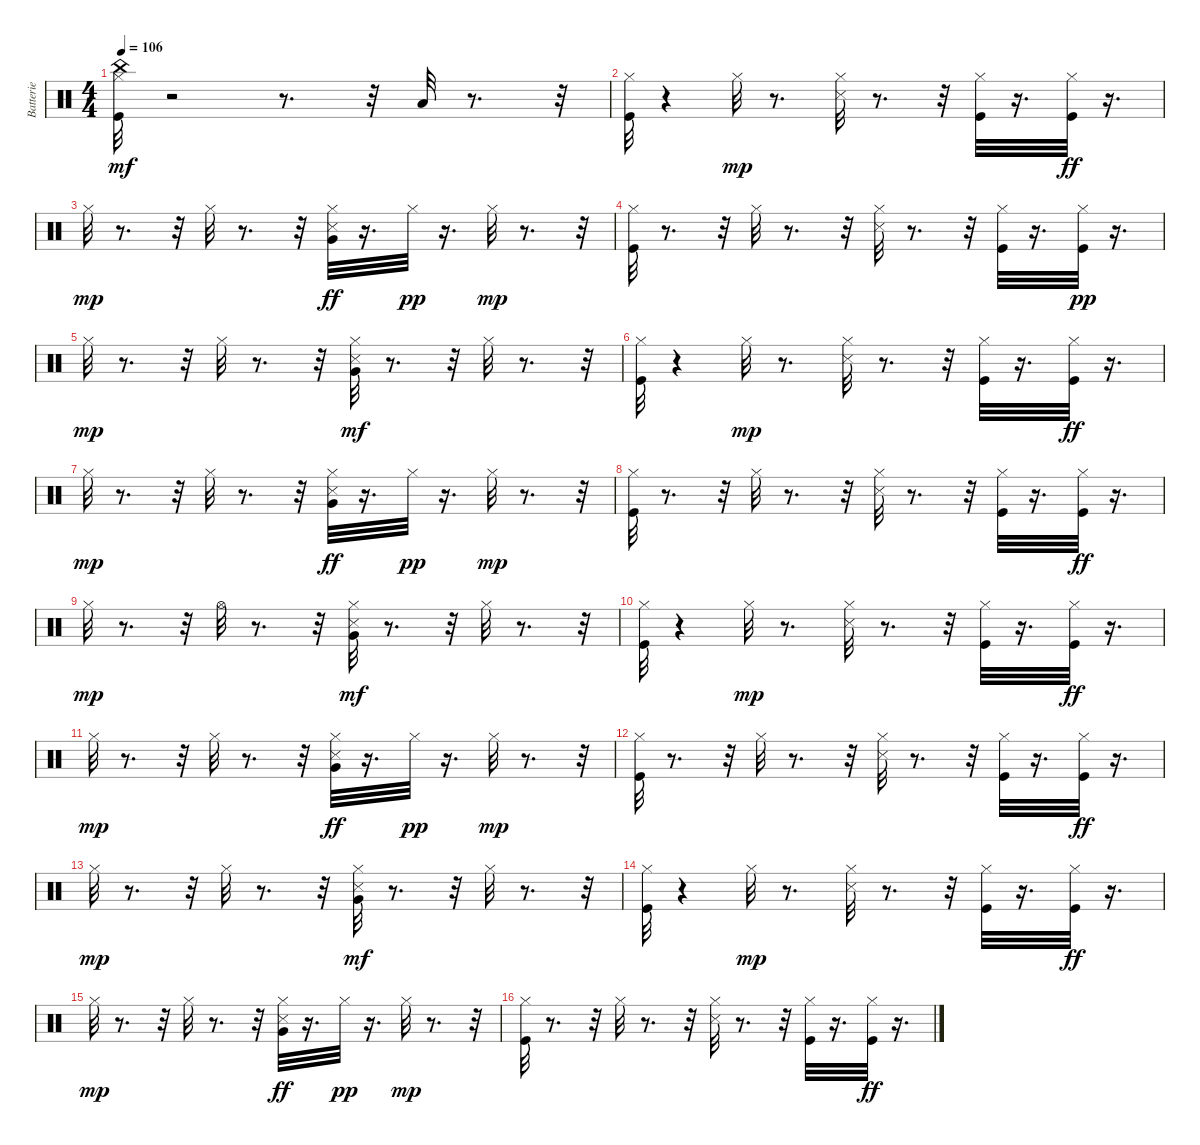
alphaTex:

\track ("Batterie" "Batterie") {instrument percussion}
\staff {score}
\articulation defaults
\ts (4 4)
\tempo 106
\clef neutral
\ks c
("Kick (hit)" "China (hit)" "Hi-Hat (closed)").32{dy mf} r.2 r.8{d} r.32 "Low Tom (hit)".32 r.8{d} r.32 |
("Kick (hit)" "Hi-Hat (closed)").32 r.4 "Hi-Hat (closed)".32{dy mp} r.8{d} ("Snare (side stick) 3" "Hi-Hat (closed)").32 r.8{d} r.32 ("Hi-Hat (closed)" "Kick (hit)").32 r.16{d} ("Hi-Hat (closed)" "Kick (hit)").32{dy ff} r.16{d} |
"Hi-Hat (closed)".32{dy mp} r.8{d} r.32 "Hi-Hat (closed)".32 r.8{d} r.32 ("Hi-Hat (closed)" "Very Low Tom (hit)" "Snare (side stick) 3").32{dy ff} r.16{d} "Hi-Hat (closed)".32{dy pp} r.16{d} "Hi-Hat (closed)".32{dy mp} r.8{d} r.32 |
("Hi-Hat (closed)" "Kick (hit)").32 r.8{d} r.32 "Hi-Hat (closed)".32 r.8{d} r.32 ("Snare (side stick) 3" "Hi-Hat (closed)").32 r.8{d} r.32 ("Kick (hit)" "Hi-Hat (closed)").32 r.16{d} ("Kick (hit)" "Hi-Hat (closed)").32{dy pp} r.16{d} |
"Hi-Hat (closed)".32{dy mp} r.8{d} r.32 "Hi-Hat (closed)".32 r.8{d} r.32 ("Hi-Hat (closed)" "Snare (side stick) 3" "Very Low Tom (hit)").32{dy mf} r.8{d} r.32 "Hi-Hat (closed)".32 r.8{d} r.32 |
("Kick (hit)" "Hi-Hat (closed)").32 r.4 "Hi-Hat (closed)".32{dy mp} r.8{d} ("Snare (side stick) 3" "Hi-Hat (closed)").32 r.8{d} r.32 ("Hi-Hat (closed)" "Kick (hit)").32 r.16{d} ("Hi-Hat (closed)" "Kick (hit)").32{dy ff} r.16{d} |
"Hi-Hat (closed)".32{dy mp} r.8{d} r.32 "Hi-Hat (closed)".32 r.8{d} r.32 ("Hi-Hat (closed)" "Very Low Tom (hit)" "Snare (side stick) 3").32{dy ff} r.16{d} "Hi-Hat (closed)".32{dy pp} r.16{d} "Hi-Hat (closed)".32{dy mp} r.8{d} r.32 |
("Hi-Hat (closed)" "Kick (hit)").32 r.8{d} r.32 "Hi-Hat (closed)".32 r.8{d} r.32 ("Snare (side stick) 3" "Hi-Hat (closed)").32 r.8{d} r.32 ("Kick (hit)" "Hi-Hat (closed)").32 r.16{d} ("Hi-Hat (closed)" "Kick (hit)").32{dy ff} r.16{d} |
"Hi-Hat (closed)".32{dy mp} r.8{d} r.32 "Hi-Hat (open)".32 r.8{d} r.32 ("Hi-Hat (closed)" "Snare (side stick) 3" "Very Low Tom (hit)").32{dy mf} r.8{d} r.32 "Hi-Hat (closed)".32 r.8{d} r.32 |
("Kick (hit)" "Hi-Hat (closed)").32 r.4 "Hi-Hat (closed)".32{dy mp} r.8{d} ("Snare (side stick) 3" "Hi-Hat (closed)").32 r.8{d} r.32 ("Hi-Hat (closed)" "Kick (hit)").32 r.16{d} ("Hi-Hat (closed)" "Kick (hit)").32{dy ff} r.16{d} |
"Hi-Hat (closed)".32{dy mp} r.8{d} r.32 "Hi-Hat (closed)".32 r.8{d} r.32 ("Hi-Hat (closed)" "Very Low Tom (hit)" "Snare (side stick) 3").32{dy ff} r.16{d} "Hi-Hat (closed)".32{dy pp} r.16{d} "Hi-Hat (closed)".32{dy mp} r.8{d} r.32 |
("Hi-Hat (closed)" "Kick (hit)").32 r.8{d} r.32 "Hi-Hat (closed)".32 r.8{d} r.32 ("Snare (side stick) 3" "Hi-Hat (closed)").32 r.8{d} r.32 ("Kick (hit)" "Hi-Hat (closed)").32 r.16{d} ("Hi-Hat (closed)" "Kick (hit)").32{dy ff} r.16{d} |
"Hi-Hat (closed)".32{dy mp} r.8{d} r.32 "Hi-Hat (closed)".32 r.8{d} r.32 ("Hi-Hat (closed)" "Snare (side stick) 3" "Very Low Tom (hit)").32{dy mf} r.8{d} r.32 "Hi-Hat (closed)".32 r.8{d} r.32 |
("Kick (hit)" "Hi-Hat (closed)").32 r.4 "Hi-Hat (closed)".32{dy mp} r.8{d} ("Snare (side stick) 3" "Hi-Hat (closed)").32 r.8{d} r.32 ("Hi-Hat (closed)" "Kick (hit)").32 r.16{d} ("Hi-Hat (closed)" "Kick (hit)").32{dy ff} r.16{d} |
"Hi-Hat (closed)".32{dy mp} r.8{d} r.32 "Hi-Hat (closed)".32 r.8{d} r.32 ("Hi-Hat (closed)" "Very Low Tom (hit)" "Snare (side stick) 3").32{dy ff} r.16{d} "Hi-Hat (closed)".32{dy pp} r.16{d} "Hi-Hat (closed)".32{dy mp} r.8{d} r.32 |
("Hi-Hat (closed)" "Kick (hit)").32 r.8{d} r.32 "Hi-Hat (closed)".32 r.8{d} r.32 ("Snare (side stick) 3" "Hi-Hat (closed)").32 r.8{d} r.32 ("Kick (hit)" "Hi-Hat (closed)").32 r.16{d} ("Hi-Hat (closed)" "Kick (hit)").32{dy ff} r.16{d}
